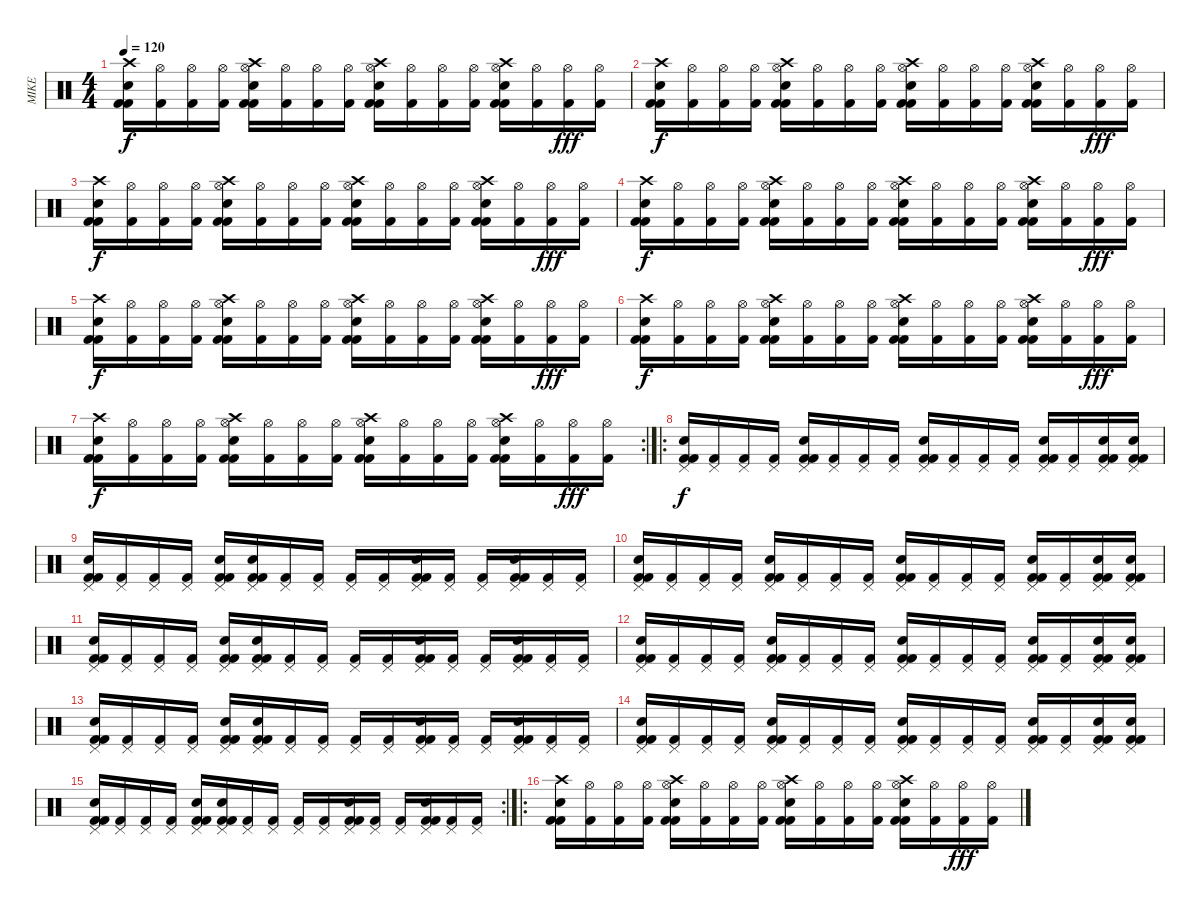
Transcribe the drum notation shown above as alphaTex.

\track ("MIKE" "MIKE") {instrument percussion}
\staff {score}
\articulation defaults
\ts (4 4)
\tempo 120
\clef neutral
\ks c
("Crash high (hit)" "Kick (hit) 2" "Electric Snare (hit)" "Kick (hit) 2").16{dy f} ("Hi-Hat (open)" "Kick (hit) 2").16 ("Hi-Hat (open)" "Kick (hit) 2").16 ("Hi-Hat (open)" "Kick (hit) 2").16 ("Hi-Hat (open)" "Crash high (hit)" "Kick (hit) 2" "Electric Snare (hit)" "Kick (hit) 2").16 ("Hi-Hat (open)" "Kick (hit) 2").16 ("Hi-Hat (open)" "Kick (hit) 2").16 ("Hi-Hat (open)" "Kick (hit) 2").16 ("Hi-Hat (open)" "Crash high (hit)" "Kick (hit) 2" "Electric Snare (hit)" "Kick (hit) 2").16 ("Hi-Hat (open)" "Kick (hit) 2").16 ("Hi-Hat (open)" "Kick (hit) 2").16 ("Hi-Hat (open)" "Kick (hit) 2").16 ("Hi-Hat (open)" "Crash high (hit)" "Kick (hit) 2" "Electric Snare (hit)" "Kick (hit) 2").16 ("Hi-Hat (open)" "Kick (hit) 2").16 ("Hi-Hat (open)" "Kick (hit) 2").16{dy fff} ("Hi-Hat (open)" "Kick (hit) 2").16 |
("Crash high (hit)" "Kick (hit) 2" "Electric Snare (hit)" "Kick (hit) 2").16{dy f} ("Hi-Hat (open)" "Kick (hit) 2").16 ("Hi-Hat (open)" "Kick (hit) 2").16 ("Hi-Hat (open)" "Kick (hit) 2").16 ("Hi-Hat (open)" "Crash high (hit)" "Kick (hit) 2" "Electric Snare (hit)" "Kick (hit) 2").16 ("Hi-Hat (open)" "Kick (hit) 2").16 ("Hi-Hat (open)" "Kick (hit) 2").16 ("Hi-Hat (open)" "Kick (hit) 2").16 ("Hi-Hat (open)" "Crash high (hit)" "Kick (hit) 2" "Electric Snare (hit)" "Kick (hit) 2").16 ("Hi-Hat (open)" "Kick (hit) 2").16 ("Hi-Hat (open)" "Kick (hit) 2").16 ("Hi-Hat (open)" "Kick (hit) 2").16 ("Hi-Hat (open)" "Crash high (hit)" "Kick (hit) 2" "Electric Snare (hit)" "Kick (hit) 2").16 ("Hi-Hat (open)" "Kick (hit) 2").16 ("Hi-Hat (open)" "Kick (hit) 2").16{dy fff} ("Hi-Hat (open)" "Kick (hit) 2").16 |
("Crash high (hit)" "Kick (hit) 2" "Electric Snare (hit)" "Kick (hit) 2").16{dy f} ("Hi-Hat (open)" "Kick (hit) 2").16 ("Hi-Hat (open)" "Kick (hit) 2").16 ("Hi-Hat (open)" "Kick (hit) 2").16 ("Hi-Hat (open)" "Crash high (hit)" "Kick (hit) 2" "Electric Snare (hit)" "Kick (hit) 2").16 ("Hi-Hat (open)" "Kick (hit) 2").16 ("Hi-Hat (open)" "Kick (hit) 2").16 ("Hi-Hat (open)" "Kick (hit) 2").16 ("Hi-Hat (open)" "Crash high (hit)" "Kick (hit) 2" "Electric Snare (hit)" "Kick (hit) 2").16 ("Hi-Hat (open)" "Kick (hit) 2").16 ("Hi-Hat (open)" "Kick (hit) 2").16 ("Hi-Hat (open)" "Kick (hit) 2").16 ("Hi-Hat (open)" "Crash high (hit)" "Kick (hit) 2" "Electric Snare (hit)" "Kick (hit) 2").16 ("Hi-Hat (open)" "Kick (hit) 2").16 ("Hi-Hat (open)" "Kick (hit) 2").16{dy fff} ("Hi-Hat (open)" "Kick (hit) 2").16 |
("Crash high (hit)" "Kick (hit) 2" "Electric Snare (hit)" "Kick (hit) 2").16{dy f} ("Hi-Hat (open)" "Kick (hit) 2").16 ("Hi-Hat (open)" "Kick (hit) 2").16 ("Hi-Hat (open)" "Kick (hit) 2").16 ("Hi-Hat (open)" "Crash high (hit)" "Kick (hit) 2" "Electric Snare (hit)" "Kick (hit) 2").16 ("Hi-Hat (open)" "Kick (hit) 2").16 ("Hi-Hat (open)" "Kick (hit) 2").16 ("Hi-Hat (open)" "Kick (hit) 2").16 ("Hi-Hat (open)" "Crash high (hit)" "Kick (hit) 2" "Electric Snare (hit)" "Kick (hit) 2").16 ("Hi-Hat (open)" "Kick (hit) 2").16 ("Hi-Hat (open)" "Kick (hit) 2").16 ("Hi-Hat (open)" "Kick (hit) 2").16 ("Hi-Hat (open)" "Crash high (hit)" "Kick (hit) 2" "Electric Snare (hit)" "Kick (hit) 2").16 ("Hi-Hat (open)" "Kick (hit) 2").16 ("Hi-Hat (open)" "Kick (hit) 2").16{dy fff} ("Hi-Hat (open)" "Kick (hit) 2").16 |
("Crash high (hit)" "Kick (hit) 2" "Electric Snare (hit)" "Kick (hit) 2").16{dy f} ("Hi-Hat (open)" "Kick (hit) 2").16 ("Hi-Hat (open)" "Kick (hit) 2").16 ("Hi-Hat (open)" "Kick (hit) 2").16 ("Hi-Hat (open)" "Crash high (hit)" "Kick (hit) 2" "Electric Snare (hit)" "Kick (hit) 2").16 ("Hi-Hat (open)" "Kick (hit) 2").16 ("Hi-Hat (open)" "Kick (hit) 2").16 ("Hi-Hat (open)" "Kick (hit) 2").16 ("Hi-Hat (open)" "Crash high (hit)" "Kick (hit) 2" "Electric Snare (hit)" "Kick (hit) 2").16 ("Hi-Hat (open)" "Kick (hit) 2").16 ("Hi-Hat (open)" "Kick (hit) 2").16 ("Hi-Hat (open)" "Kick (hit) 2").16 ("Hi-Hat (open)" "Crash high (hit)" "Kick (hit) 2" "Electric Snare (hit)" "Kick (hit) 2").16 ("Hi-Hat (open)" "Kick (hit) 2").16 ("Hi-Hat (open)" "Kick (hit) 2").16{dy fff} ("Hi-Hat (open)" "Kick (hit) 2").16 |
("Crash high (hit)" "Kick (hit) 2" "Electric Snare (hit)" "Kick (hit) 2").16{dy f} ("Hi-Hat (open)" "Kick (hit) 2").16 ("Hi-Hat (open)" "Kick (hit) 2").16 ("Hi-Hat (open)" "Kick (hit) 2").16 ("Hi-Hat (open)" "Crash high (hit)" "Kick (hit) 2" "Electric Snare (hit)" "Kick (hit) 2").16 ("Hi-Hat (open)" "Kick (hit) 2").16 ("Hi-Hat (open)" "Kick (hit) 2").16 ("Hi-Hat (open)" "Kick (hit) 2").16 ("Hi-Hat (open)" "Crash high (hit)" "Kick (hit) 2" "Electric Snare (hit)" "Kick (hit) 2").16 ("Hi-Hat (open)" "Kick (hit) 2").16 ("Hi-Hat (open)" "Kick (hit) 2").16 ("Hi-Hat (open)" "Kick (hit) 2").16 ("Hi-Hat (open)" "Crash high (hit)" "Kick (hit) 2" "Electric Snare (hit)" "Kick (hit) 2").16 ("Hi-Hat (open)" "Kick (hit) 2").16 ("Hi-Hat (open)" "Kick (hit) 2").16{dy fff} ("Hi-Hat (open)" "Kick (hit) 2").16 |
\rc 2
("Crash high (hit)" "Kick (hit) 2" "Electric Snare (hit)" "Kick (hit) 2").16{dy f} ("Hi-Hat (open)" "Kick (hit) 2").16 ("Hi-Hat (open)" "Kick (hit) 2").16 ("Hi-Hat (open)" "Kick (hit) 2").16 ("Hi-Hat (open)" "Crash high (hit)" "Kick (hit) 2" "Electric Snare (hit)" "Kick (hit) 2").16 ("Hi-Hat (open)" "Kick (hit) 2").16 ("Hi-Hat (open)" "Kick (hit) 2").16 ("Hi-Hat (open)" "Kick (hit) 2").16 ("Hi-Hat (open)" "Crash high (hit)" "Kick (hit) 2" "Electric Snare (hit)" "Kick (hit) 2").16 ("Hi-Hat (open)" "Kick (hit) 2").16 ("Hi-Hat (open)" "Kick (hit) 2").16 ("Hi-Hat (open)" "Kick (hit) 2").16 ("Hi-Hat (open)" "Crash high (hit)" "Kick (hit) 2" "Electric Snare (hit)" "Kick (hit) 2").16 ("Hi-Hat (open)" "Kick (hit) 2").16 ("Hi-Hat (open)" "Kick (hit) 2").16{dy fff} ("Hi-Hat (open)" "Kick (hit) 2").16 |
\ro
("Pedal Hi-Hat (hit)" "Kick (hit) 2" "Electric Snare (hit)" "Kick (hit) 2").16{dy f} ("Pedal Hi-Hat (hit)" "Kick (hit) 2").16 ("Pedal Hi-Hat (hit)" "Kick (hit) 2").16 ("Pedal Hi-Hat (hit)" "Kick (hit) 2").16 ("Pedal Hi-Hat (hit)" "Kick (hit) 2" "Electric Snare (hit)" "Kick (hit) 2").16 ("Pedal Hi-Hat (hit)" "Kick (hit) 2").16 ("Pedal Hi-Hat (hit)" "Kick (hit) 2").16 ("Pedal Hi-Hat (hit)" "Kick (hit) 2").16 ("Pedal Hi-Hat (hit)" "Kick (hit) 2" "Electric Snare (hit)" "Kick (hit) 2").16 ("Pedal Hi-Hat (hit)" "Kick (hit) 2").16 ("Pedal Hi-Hat (hit)" "Kick (hit) 2").16 ("Pedal Hi-Hat (hit)" "Kick (hit) 2").16 ("Pedal Hi-Hat (hit)" "Kick (hit) 2" "Electric Snare (hit)" "Kick (hit) 2").16 ("Pedal Hi-Hat (hit)" "Kick (hit) 2").16 ("Pedal Hi-Hat (hit)" "Kick (hit) 2" "Electric Snare (hit)" "Kick (hit) 2").16 ("Pedal Hi-Hat (hit)" "Kick (hit) 2" "Electric Snare (hit)" "Kick (hit) 2").16 |
("Pedal Hi-Hat (hit)" "Kick (hit) 2" "Electric Snare (hit)" "Kick (hit) 2").16 ("Pedal Hi-Hat (hit)" "Kick (hit) 2").16 ("Pedal Hi-Hat (hit)" "Kick (hit) 2").16 ("Pedal Hi-Hat (hit)" "Kick (hit) 2").16 ("Pedal Hi-Hat (hit)" "Kick (hit) 2" "Electric Snare (hit)" "Kick (hit) 2").16 ("Pedal Hi-Hat (hit)" "Kick (hit) 2" "Electric Snare (hit)" "Kick (hit) 2").16 ("Pedal Hi-Hat (hit)" "Kick (hit) 2").16 ("Pedal Hi-Hat (hit)" "Kick (hit) 2").16 ("Pedal Hi-Hat (hit)" "Kick (hit) 2").16 ("Pedal Hi-Hat (hit)" "Kick (hit) 2").16 ("Pedal Hi-Hat (hit)" "Kick (hit) 2" "Electric Snare (hit)" "Kick (hit) 2").16 ("Pedal Hi-Hat (hit)" "Kick (hit) 2").16 ("Pedal Hi-Hat (hit)" "Kick (hit) 2").16 ("Pedal Hi-Hat (hit)" "Kick (hit) 2" "Electric Snare (hit)" "Kick (hit) 2").16 ("Pedal Hi-Hat (hit)" "Kick (hit) 2").16 ("Pedal Hi-Hat (hit)" "Kick (hit) 2").16 |
("Pedal Hi-Hat (hit)" "Kick (hit) 2" "Electric Snare (hit)" "Kick (hit) 2").16 ("Pedal Hi-Hat (hit)" "Kick (hit) 2").16 ("Pedal Hi-Hat (hit)" "Kick (hit) 2").16 ("Pedal Hi-Hat (hit)" "Kick (hit) 2").16 ("Pedal Hi-Hat (hit)" "Kick (hit) 2" "Electric Snare (hit)" "Kick (hit) 2").16 ("Pedal Hi-Hat (hit)" "Kick (hit) 2").16 ("Pedal Hi-Hat (hit)" "Kick (hit) 2").16 ("Pedal Hi-Hat (hit)" "Kick (hit) 2").16 ("Pedal Hi-Hat (hit)" "Kick (hit) 2" "Electric Snare (hit)" "Kick (hit) 2").16 ("Pedal Hi-Hat (hit)" "Kick (hit) 2").16 ("Pedal Hi-Hat (hit)" "Kick (hit) 2").16 ("Pedal Hi-Hat (hit)" "Kick (hit) 2").16 ("Pedal Hi-Hat (hit)" "Kick (hit) 2" "Electric Snare (hit)" "Kick (hit) 2").16 ("Pedal Hi-Hat (hit)" "Kick (hit) 2").16 ("Pedal Hi-Hat (hit)" "Kick (hit) 2" "Electric Snare (hit)" "Kick (hit) 2").16 ("Pedal Hi-Hat (hit)" "Kick (hit) 2" "Electric Snare (hit)" "Kick (hit) 2").16 |
("Pedal Hi-Hat (hit)" "Kick (hit) 2" "Electric Snare (hit)" "Kick (hit) 2").16 ("Pedal Hi-Hat (hit)" "Kick (hit) 2").16 ("Pedal Hi-Hat (hit)" "Kick (hit) 2").16 ("Pedal Hi-Hat (hit)" "Kick (hit) 2").16 ("Pedal Hi-Hat (hit)" "Kick (hit) 2" "Electric Snare (hit)" "Kick (hit) 2").16 ("Pedal Hi-Hat (hit)" "Kick (hit) 2" "Electric Snare (hit)" "Kick (hit) 2").16 ("Pedal Hi-Hat (hit)" "Kick (hit) 2").16 ("Pedal Hi-Hat (hit)" "Kick (hit) 2").16 ("Pedal Hi-Hat (hit)" "Kick (hit) 2").16 ("Pedal Hi-Hat (hit)" "Kick (hit) 2").16 ("Pedal Hi-Hat (hit)" "Kick (hit) 2" "Electric Snare (hit)" "Kick (hit) 2").16 ("Pedal Hi-Hat (hit)" "Kick (hit) 2").16 ("Pedal Hi-Hat (hit)" "Kick (hit) 2").16 ("Pedal Hi-Hat (hit)" "Kick (hit) 2" "Electric Snare (hit)" "Kick (hit) 2").16 ("Pedal Hi-Hat (hit)" "Kick (hit) 2").16 ("Pedal Hi-Hat (hit)" "Kick (hit) 2").16 |
("Pedal Hi-Hat (hit)" "Kick (hit) 2" "Electric Snare (hit)" "Kick (hit) 2").16 ("Pedal Hi-Hat (hit)" "Kick (hit) 2").16 ("Pedal Hi-Hat (hit)" "Kick (hit) 2").16 ("Pedal Hi-Hat (hit)" "Kick (hit) 2").16 ("Pedal Hi-Hat (hit)" "Kick (hit) 2" "Electric Snare (hit)" "Kick (hit) 2").16 ("Pedal Hi-Hat (hit)" "Kick (hit) 2").16 ("Pedal Hi-Hat (hit)" "Kick (hit) 2").16 ("Pedal Hi-Hat (hit)" "Kick (hit) 2").16 ("Pedal Hi-Hat (hit)" "Kick (hit) 2" "Electric Snare (hit)" "Kick (hit) 2").16 ("Pedal Hi-Hat (hit)" "Kick (hit) 2").16 ("Pedal Hi-Hat (hit)" "Kick (hit) 2").16 ("Pedal Hi-Hat (hit)" "Kick (hit) 2").16 ("Pedal Hi-Hat (hit)" "Kick (hit) 2" "Electric Snare (hit)" "Kick (hit) 2").16 ("Pedal Hi-Hat (hit)" "Kick (hit) 2").16 ("Pedal Hi-Hat (hit)" "Kick (hit) 2" "Electric Snare (hit)" "Kick (hit) 2").16 ("Pedal Hi-Hat (hit)" "Kick (hit) 2" "Electric Snare (hit)" "Kick (hit) 2").16 |
("Pedal Hi-Hat (hit)" "Kick (hit) 2" "Electric Snare (hit)" "Kick (hit) 2").16 ("Pedal Hi-Hat (hit)" "Kick (hit) 2").16 ("Pedal Hi-Hat (hit)" "Kick (hit) 2").16 ("Pedal Hi-Hat (hit)" "Kick (hit) 2").16 ("Pedal Hi-Hat (hit)" "Kick (hit) 2" "Electric Snare (hit)" "Kick (hit) 2").16 ("Pedal Hi-Hat (hit)" "Kick (hit) 2" "Electric Snare (hit)" "Kick (hit) 2").16 ("Pedal Hi-Hat (hit)" "Kick (hit) 2").16 ("Pedal Hi-Hat (hit)" "Kick (hit) 2").16 ("Pedal Hi-Hat (hit)" "Kick (hit) 2").16 ("Pedal Hi-Hat (hit)" "Kick (hit) 2").16 ("Pedal Hi-Hat (hit)" "Kick (hit) 2" "Electric Snare (hit)" "Kick (hit) 2").16 ("Pedal Hi-Hat (hit)" "Kick (hit) 2").16 ("Pedal Hi-Hat (hit)" "Kick (hit) 2").16 ("Pedal Hi-Hat (hit)" "Kick (hit) 2" "Electric Snare (hit)" "Kick (hit) 2").16 ("Pedal Hi-Hat (hit)" "Kick (hit) 2").16 ("Pedal Hi-Hat (hit)" "Kick (hit) 2").16 |
("Pedal Hi-Hat (hit)" "Kick (hit) 2" "Electric Snare (hit)" "Kick (hit) 2").16 ("Pedal Hi-Hat (hit)" "Kick (hit) 2").16 ("Pedal Hi-Hat (hit)" "Kick (hit) 2").16 ("Pedal Hi-Hat (hit)" "Kick (hit) 2").16 ("Pedal Hi-Hat (hit)" "Kick (hit) 2" "Electric Snare (hit)" "Kick (hit) 2").16 ("Pedal Hi-Hat (hit)" "Kick (hit) 2").16 ("Pedal Hi-Hat (hit)" "Kick (hit) 2").16 ("Pedal Hi-Hat (hit)" "Kick (hit) 2").16 ("Pedal Hi-Hat (hit)" "Kick (hit) 2" "Electric Snare (hit)" "Kick (hit) 2").16 ("Pedal Hi-Hat (hit)" "Kick (hit) 2").16 ("Pedal Hi-Hat (hit)" "Kick (hit) 2").16 ("Pedal Hi-Hat (hit)" "Kick (hit) 2").16 ("Pedal Hi-Hat (hit)" "Kick (hit) 2" "Electric Snare (hit)" "Kick (hit) 2").16 ("Pedal Hi-Hat (hit)" "Kick (hit) 2").16 ("Pedal Hi-Hat (hit)" "Kick (hit) 2" "Electric Snare (hit)" "Kick (hit) 2").16 ("Pedal Hi-Hat (hit)" "Kick (hit) 2" "Electric Snare (hit)" "Kick (hit) 2").16 |
\rc 2
("Pedal Hi-Hat (hit)" "Kick (hit) 2" "Electric Snare (hit)" "Kick (hit) 2").16 ("Pedal Hi-Hat (hit)" "Kick (hit) 2").16 ("Pedal Hi-Hat (hit)" "Kick (hit) 2").16 ("Pedal Hi-Hat (hit)" "Kick (hit) 2").16 ("Pedal Hi-Hat (hit)" "Kick (hit) 2" "Electric Snare (hit)" "Kick (hit) 2").16 ("Pedal Hi-Hat (hit)" "Kick (hit) 2" "Electric Snare (hit)" "Kick (hit) 2").16 ("Pedal Hi-Hat (hit)" "Kick (hit) 2").16 ("Pedal Hi-Hat (hit)" "Kick (hit) 2").16 ("Pedal Hi-Hat (hit)" "Kick (hit) 2").16 ("Pedal Hi-Hat (hit)" "Kick (hit) 2").16 ("Pedal Hi-Hat (hit)" "Kick (hit) 2" "Electric Snare (hit)" "Kick (hit) 2").16 ("Pedal Hi-Hat (hit)" "Kick (hit) 2").16 ("Pedal Hi-Hat (hit)" "Kick (hit) 2").16 ("Pedal Hi-Hat (hit)" "Kick (hit) 2" "Electric Snare (hit)" "Kick (hit) 2").16 ("Pedal Hi-Hat (hit)" "Kick (hit) 2").16 ("Pedal Hi-Hat (hit)" "Kick (hit) 2").16 |
\ro
("Crash high (hit)" "Kick (hit) 2" "Electric Snare (hit)" "Kick (hit) 2").16 ("Hi-Hat (open)" "Kick (hit) 2").16 ("Hi-Hat (open)" "Kick (hit) 2").16 ("Hi-Hat (open)" "Kick (hit) 2").16 ("Hi-Hat (open)" "Crash high (hit)" "Kick (hit) 2" "Electric Snare (hit)" "Kick (hit) 2").16 ("Hi-Hat (open)" "Kick (hit) 2").16 ("Hi-Hat (open)" "Kick (hit) 2").16 ("Hi-Hat (open)" "Kick (hit) 2").16 ("Hi-Hat (open)" "Crash high (hit)" "Kick (hit) 2" "Electric Snare (hit)" "Kick (hit) 2").16 ("Hi-Hat (open)" "Kick (hit) 2").16 ("Hi-Hat (open)" "Kick (hit) 2").16 ("Hi-Hat (open)" "Kick (hit) 2").16 ("Hi-Hat (open)" "Crash high (hit)" "Kick (hit) 2" "Electric Snare (hit)" "Kick (hit) 2").16 ("Hi-Hat (open)" "Kick (hit) 2").16 ("Hi-Hat (open)" "Kick (hit) 2").16{dy fff} ("Hi-Hat (open)" "Kick (hit) 2").16
